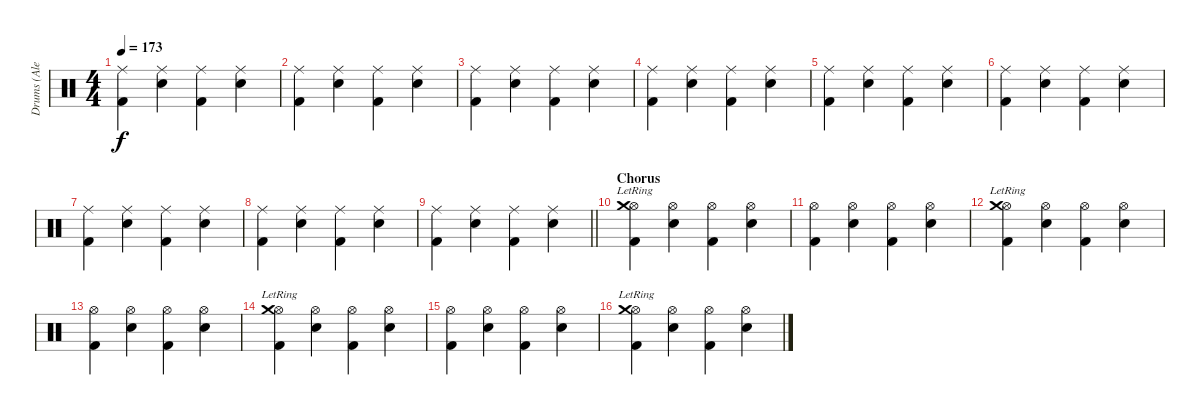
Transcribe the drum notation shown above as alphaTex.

\track ("Drums (Alex Van Halen)" "Drums (Ale") {instrument percussion}
\staff {score}
\articulation defaults
\ts (4 4)
\tempo 173
\clef neutral
\ks c
("Kick (hit) 2" "Ride (middle)").4{dy f} ("Snare (hit) 2" "Ride (middle)").4 ("Kick (hit) 2" "Ride (middle)").4 ("Snare (hit) 2" "Ride (middle)").4 |
("Kick (hit) 2" "Ride (middle)").4 ("Snare (hit) 2" "Ride (middle)").4 ("Kick (hit) 2" "Ride (middle)").4 ("Snare (hit) 2" "Ride (middle)").4 |
("Kick (hit) 2" "Ride (middle)").4 ("Snare (hit) 2" "Ride (middle)").4 ("Kick (hit) 2" "Ride (middle)").4 ("Snare (hit) 2" "Ride (middle)").4 |
("Kick (hit) 2" "Ride (middle)").4 ("Snare (hit) 2" "Ride (middle)").4 ("Kick (hit) 2" "Ride (middle)").4 ("Snare (hit) 2" "Ride (middle)").4 |
("Kick (hit) 2" "Ride (middle)").4 ("Snare (hit) 2" "Ride (middle)").4 ("Kick (hit) 2" "Ride (middle)").4 ("Snare (hit) 2" "Ride (middle)").4 |
("Kick (hit) 2" "Ride (middle)").4 ("Snare (hit) 2" "Ride (middle)").4 ("Kick (hit) 2" "Ride (middle)").4 ("Snare (hit) 2" "Ride (middle)").4 |
("Kick (hit) 2" "Ride (middle)").4 ("Snare (hit) 2" "Ride (middle)").4 ("Kick (hit) 2" "Ride (middle)").4 ("Snare (hit) 2" "Ride (middle)").4 |
("Kick (hit) 2" "Ride (middle)").4 ("Snare (hit) 2" "Ride (middle)").4 ("Kick (hit) 2" "Ride (middle)").4 ("Snare (hit) 2" "Ride (middle)").4 |
\barLineRight lightlight
("Kick (hit) 2" "Ride (middle)").4 ("Snare (hit) 2" "Ride (middle)").4 ("Kick (hit) 2" "Ride (middle)").4 ("Snare (hit) 2" "Ride (middle)").4 |
\section ("" "Chorus")
("Kick (hit) 2" "Hi-Hat (open)" "Crash medium (hit)"{lr}).4 ("Snare (hit) 2" "Hi-Hat (open)").4 ("Kick (hit) 2" "Hi-Hat (open)").4 ("Snare (hit) 2" "Hi-Hat (open)").4 |
("Kick (hit) 2" "Hi-Hat (open)").4 ("Snare (hit) 2" "Hi-Hat (open)").4 ("Kick (hit) 2" "Hi-Hat (open)").4 ("Snare (hit) 2" "Hi-Hat (open)").4 |
("Kick (hit) 2" "Hi-Hat (open)" "Crash medium (hit)"{lr}).4 ("Snare (hit) 2" "Hi-Hat (open)").4 ("Kick (hit) 2" "Hi-Hat (open)").4 ("Snare (hit) 2" "Hi-Hat (open)").4 |
("Kick (hit) 2" "Hi-Hat (open)").4 ("Snare (hit) 2" "Hi-Hat (open)").4 ("Kick (hit) 2" "Hi-Hat (open)").4 ("Snare (hit) 2" "Hi-Hat (open)").4 |
("Kick (hit) 2" "Hi-Hat (open)" "Crash medium (hit)"{lr}).4 ("Snare (hit) 2" "Hi-Hat (open)").4 ("Kick (hit) 2" "Hi-Hat (open)").4 ("Snare (hit) 2" "Hi-Hat (open)").4 |
("Kick (hit) 2" "Hi-Hat (open)").4 ("Snare (hit) 2" "Hi-Hat (open)").4 ("Kick (hit) 2" "Hi-Hat (open)").4 ("Snare (hit) 2" "Hi-Hat (open)").4 |
("Kick (hit) 2" "Hi-Hat (open)" "Crash medium (hit)"{lr}).4 ("Snare (hit) 2" "Hi-Hat (open)").4 ("Kick (hit) 2" "Hi-Hat (open)").4 ("Snare (hit) 2" "Hi-Hat (open)").4
